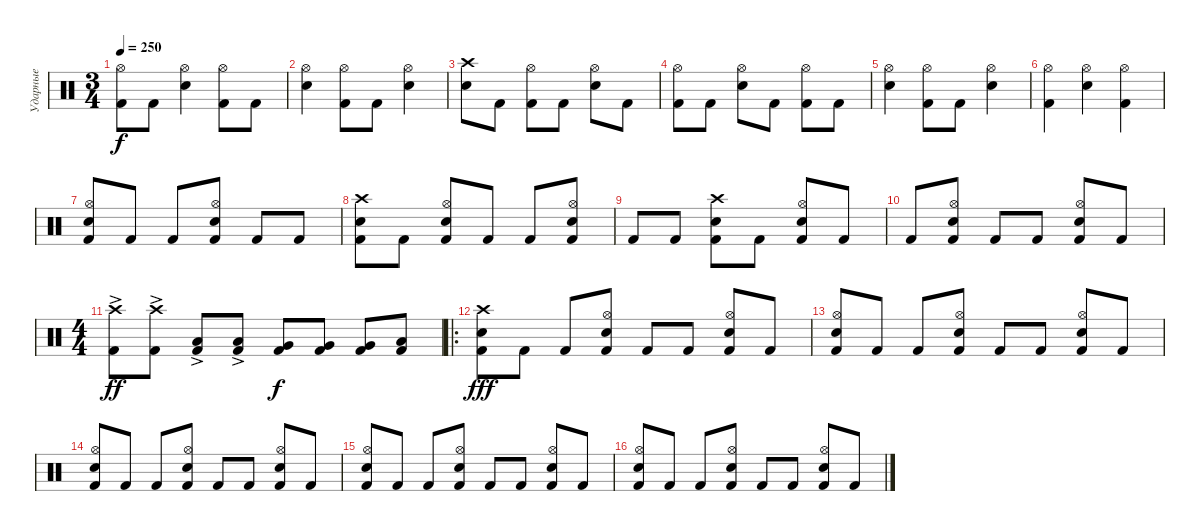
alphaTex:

\track ("Ударные" "Ударные") {instrument percussion}
\staff {score}
\articulation defaults
\ts (3 4)
\tempo 250
\clef neutral
\ks c
("Kick (hit) 2" "Hi-Hat (open)").8{dy f} "Kick (hit) 2".8 ("Snare (hit) 2" "Hi-Hat (open)").4 ("Kick (hit) 2" "Hi-Hat (open)").8 "Kick (hit) 2".8 |
("Snare (hit) 2" "Hi-Hat (open)").4 ("Kick (hit) 2" "Hi-Hat (open)").8 "Kick (hit) 2".8 ("Snare (hit) 2" "Hi-Hat (open)").4 |
("Snare (hit) 2" "Crash high (hit)").8 "Kick (hit) 2".8 ("Kick (hit) 2" "Hi-Hat (open)").8 "Kick (hit) 2".8 ("Snare (hit) 2" "Hi-Hat (open)").8 "Kick (hit) 2".8 |
("Kick (hit) 2" "Hi-Hat (open)").8 "Kick (hit) 2".8 ("Snare (hit) 2" "Hi-Hat (open)").8 "Kick (hit) 2".8 ("Kick (hit) 2" "Hi-Hat (open)").8 "Kick (hit) 2".8 |
("Snare (hit) 2" "Hi-Hat (open)").4 ("Kick (hit) 2" "Hi-Hat (open)").8 "Kick (hit) 2".8 ("Snare (hit) 2" "Hi-Hat (open)").4 |
("Kick (hit) 2" "Hi-Hat (open)").4 ("Snare (hit) 2" "Hi-Hat (open)").4 ("Kick (hit) 2" "Hi-Hat (open)").4 |
("Kick (hit) 2" "Snare (hit) 2" "Hi-Hat (open)").8 "Kick (hit) 2".8 "Kick (hit) 2".8 ("Kick (hit) 2" "Snare (hit) 2" "Hi-Hat (open)").8 "Kick (hit) 2".8 "Kick (hit) 2".8 |
("Kick (hit) 2" "Snare (hit) 2" "Crash high (hit)").8 "Kick (hit) 2".8 ("Kick (hit) 2" "Snare (hit) 2" "Hi-Hat (open)").8 "Kick (hit) 2".8 "Kick (hit) 2".8 ("Kick (hit) 2" "Snare (hit) 2" "Hi-Hat (open)").8 |
"Kick (hit) 2".8 "Kick (hit) 2".8 ("Kick (hit) 2" "Snare (hit) 2" "Crash high (hit)").8 "Kick (hit) 2".8 ("Kick (hit) 2" "Snare (hit) 2" "Hi-Hat (open)").8 "Kick (hit) 2".8 |
"Kick (hit) 2".8 ("Kick (hit) 2" "Snare (hit) 2" "Hi-Hat (open)").8 "Kick (hit) 2".8 "Kick (hit) 2".8 ("Kick (hit) 2" "Snare (hit) 2" "Hi-Hat (open)").8 "Kick (hit) 2".8 |
\ts (4 4)
("Kick (hit) 2" "Crash high (hit)"{ac}).8{dy ff} ("Kick (hit) 2" "Crash high (hit)"{ac}).8 ("Kick (hit) 2" "Low Tom (hit)"{ac}).8 ("Kick (hit) 2" "Low Tom (hit)"{ac}).8 ("Kick (hit) 2" "Very Low Tom (hit)").8{dy f} ("Kick (hit) 2" "Very Low Tom (hit)").8 ("Kick (hit) 2" "Very Low Tom (hit)").8 ("Kick (hit) 2" "Low Floor Tom (hit)").8 |
\ro
("Kick (hit) 2" "Snare (hit) 2" "Crash high (hit)").8{dy fff} "Kick (hit) 2".8 "Kick (hit) 2".8 ("Kick (hit) 2" "Snare (hit) 2" "Hi-Hat (open)").8 "Kick (hit) 2".8 "Kick (hit) 2".8 ("Kick (hit) 2" "Snare (hit) 2" "Hi-Hat (open)").8 "Kick (hit) 2".8 |
("Kick (hit) 2" "Snare (hit) 2" "Hi-Hat (open)").8 "Kick (hit) 2".8 "Kick (hit) 2".8 ("Kick (hit) 2" "Snare (hit) 2" "Hi-Hat (open)").8 "Kick (hit) 2".8 "Kick (hit) 2".8 ("Kick (hit) 2" "Snare (hit) 2" "Hi-Hat (open)").8 "Kick (hit) 2".8 |
("Kick (hit) 2" "Snare (hit) 2" "Hi-Hat (open)").8 "Kick (hit) 2".8 "Kick (hit) 2".8 ("Kick (hit) 2" "Snare (hit) 2" "Hi-Hat (open)").8 "Kick (hit) 2".8 "Kick (hit) 2".8 ("Kick (hit) 2" "Snare (hit) 2" "Hi-Hat (open)").8 "Kick (hit) 2".8 |
("Kick (hit) 2" "Snare (hit) 2" "Hi-Hat (open)").8 "Kick (hit) 2".8 "Kick (hit) 2".8 ("Kick (hit) 2" "Snare (hit) 2" "Hi-Hat (open)").8 "Kick (hit) 2".8 "Kick (hit) 2".8 ("Kick (hit) 2" "Snare (hit) 2" "Hi-Hat (open)").8 "Kick (hit) 2".8 |
("Kick (hit) 2" "Snare (hit) 2" "Hi-Hat (open)").8 "Kick (hit) 2".8 "Kick (hit) 2".8 ("Kick (hit) 2" "Snare (hit) 2" "Hi-Hat (open)").8 "Kick (hit) 2".8 "Kick (hit) 2".8 ("Kick (hit) 2" "Snare (hit) 2" "Hi-Hat (open)").8 "Kick (hit) 2".8
